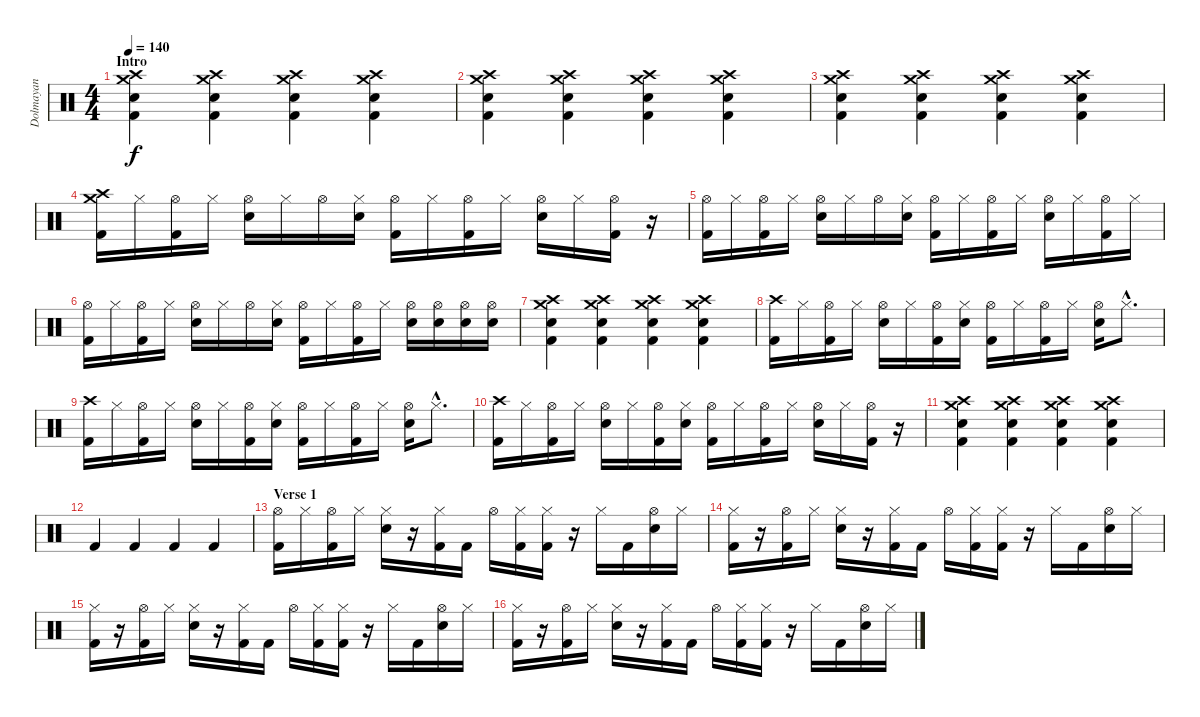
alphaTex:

\track ("Dolmayan" "Dolmayan") {instrument percussion}
\staff {score}
\articulation defaults
\ts (4 4)
\section ("" "Intro")
\tempo 140
\clef neutral
\ks c
("Crash high (hit)" "Crash medium (hit)" "Electric Snare (hit)" "Kick (hit) 2").4{dy f} ("Crash high (hit)" "Crash medium (hit)" "Electric Snare (hit)" "Kick (hit) 2").4 ("Crash high (hit)" "Crash medium (hit)" "Electric Snare (hit)" "Kick (hit) 2").4 ("Crash high (hit)" "Crash medium (hit)" "Electric Snare (hit)" "Kick (hit) 2").4 |
("Crash high (hit)" "Crash medium (hit)" "Electric Snare (hit)" "Kick (hit) 2").4 ("Crash high (hit)" "Crash medium (hit)" "Electric Snare (hit)" "Kick (hit) 2").4 ("Crash high (hit)" "Crash medium (hit)" "Electric Snare (hit)" "Kick (hit) 2").4 ("Crash high (hit)" "Crash medium (hit)" "Electric Snare (hit)" "Kick (hit) 2").4 |
("Crash high (hit)" "Crash medium (hit)" "Electric Snare (hit)" "Kick (hit) 2").4 ("Crash high (hit)" "Crash medium (hit)" "Electric Snare (hit)" "Kick (hit) 2").4 ("Crash high (hit)" "Crash medium (hit)" "Electric Snare (hit)" "Kick (hit) 2").4 ("Crash high (hit)" "Crash medium (hit)" "Electric Snare (hit)" "Kick (hit) 2").4 |
("Crash high (hit)" "Crash medium (hit)" "Kick (hit) 2").16 "Hi-Hat (closed)".16 ("Hi-Hat (open)" "Kick (hit) 2").16 "Hi-Hat (closed)".16 ("Hi-Hat (open)" "Electric Snare (hit)").16 "Hi-Hat (closed)".16 "Hi-Hat (open)".16 ("Hi-Hat (closed)" "Electric Snare (hit)").16 ("Hi-Hat (open)" "Kick (hit) 2").16 "Hi-Hat (closed)".16 ("Hi-Hat (open)" "Kick (hit) 2").16 "Hi-Hat (closed)".16 ("Hi-Hat (open)" "Electric Snare (hit)").16 "Hi-Hat (closed)".16 ("Hi-Hat (open)" "Kick (hit) 2").16 r.16 |
("Hi-Hat (open)" "Kick (hit) 2").16 "Hi-Hat (closed)".16 ("Hi-Hat (open)" "Kick (hit) 2").16 "Hi-Hat (closed)".16 ("Hi-Hat (open)" "Electric Snare (hit)").16 "Hi-Hat (closed)".16 "Hi-Hat (open)".16 ("Hi-Hat (closed)" "Electric Snare (hit)").16 ("Hi-Hat (open)" "Kick (hit) 2").16 "Hi-Hat (closed)".16 ("Hi-Hat (open)" "Kick (hit) 2").16 "Hi-Hat (closed)".16 ("Hi-Hat (open)" "Electric Snare (hit)").16 "Hi-Hat (closed)".16 ("Hi-Hat (open)" "Kick (hit) 2").16 "Hi-Hat (closed)".16 |
("Hi-Hat (open)" "Kick (hit) 2").16 "Hi-Hat (closed)".16 ("Hi-Hat (open)" "Kick (hit) 2").16 "Hi-Hat (closed)".16 ("Hi-Hat (open)" "Electric Snare (hit)").16 "Hi-Hat (closed)".16 "Hi-Hat (open)".16 ("Hi-Hat (closed)" "Electric Snare (hit)").16 ("Hi-Hat (open)" "Kick (hit) 2").16 "Hi-Hat (closed)".16 ("Hi-Hat (open)" "Kick (hit) 2").16 "Hi-Hat (closed)".16 ("Hi-Hat (open)" "Electric Snare (hit)").16 ("Hi-Hat (open)" "Electric Snare (hit)").16 ("Hi-Hat (open)" "Electric Snare (hit)").16 ("Hi-Hat (open)" "Electric Snare (hit)").16 |
("Crash high (hit)" "Crash medium (hit)" "Electric Snare (hit)" "Kick (hit) 2").4 ("Crash high (hit)" "Crash medium (hit)" "Electric Snare (hit)" "Kick (hit) 2").4 ("Crash high (hit)" "Crash medium (hit)" "Electric Snare (hit)" "Kick (hit) 2").4 ("Crash high (hit)" "Crash medium (hit)" "Electric Snare (hit)" "Kick (hit) 2").4 |
("Crash high (hit)" "Kick (hit) 2").16 "Hi-Hat (closed)".16 ("Hi-Hat (open)" "Kick (hit) 2").16 "Hi-Hat (closed)".16 ("Hi-Hat (open)" "Electric Snare (hit)").16 "Hi-Hat (closed)".16 ("Hi-Hat (open)" "Kick (hit) 2").16 ("Hi-Hat (closed)" "Electric Snare (hit)").16 ("Hi-Hat (open)" "Kick (hit) 2").16 "Hi-Hat (closed)".16 ("Hi-Hat (open)" "Kick (hit) 2").16 "Hi-Hat (closed)".16 ("Hi-Hat (open)" "Electric Snare (hit)").16 "Hi-Hat (closed)"{hac}.8{d} |
("Crash high (hit)" "Kick (hit) 2").16 "Hi-Hat (closed)".16 ("Hi-Hat (open)" "Kick (hit) 2").16 "Hi-Hat (closed)".16 ("Hi-Hat (open)" "Electric Snare (hit)").16 "Hi-Hat (closed)".16 ("Hi-Hat (open)" "Kick (hit) 2").16 ("Hi-Hat (closed)" "Electric Snare (hit)").16 ("Hi-Hat (open)" "Kick (hit) 2").16 "Hi-Hat (closed)".16 ("Hi-Hat (open)" "Kick (hit) 2").16 "Hi-Hat (closed)".16 ("Hi-Hat (open)" "Electric Snare (hit)").16 "Hi-Hat (closed)"{hac}.8{d} |
("Crash high (hit)" "Kick (hit) 2").16 "Hi-Hat (closed)".16 ("Hi-Hat (open)" "Kick (hit) 2").16 "Hi-Hat (closed)".16 ("Hi-Hat (open)" "Electric Snare (hit)").16 "Hi-Hat (closed)".16 ("Hi-Hat (open)" "Kick (hit) 2").16 ("Hi-Hat (closed)" "Electric Snare (hit)").16 ("Hi-Hat (open)" "Kick (hit) 2").16 "Hi-Hat (closed)".16 ("Hi-Hat (open)" "Kick (hit) 2").16 "Hi-Hat (closed)".16 ("Hi-Hat (open)" "Electric Snare (hit)").16 "Hi-Hat (closed)".16 ("Hi-Hat (open)" "Kick (hit) 2").16 r.16 |
("Crash high (hit)" "Crash medium (hit)" "Electric Snare (hit)" "Kick (hit) 2").4 ("Crash high (hit)" "Crash medium (hit)" "Electric Snare (hit)" "Kick (hit) 2").4 ("Crash high (hit)" "Crash medium (hit)" "Electric Snare (hit)" "Kick (hit) 2").4 ("Crash high (hit)" "Crash medium (hit)" "Electric Snare (hit)" "Kick (hit) 2").4 |
"Kick (hit) 2".4 "Kick (hit) 2".4 "Kick (hit) 2".4 "Kick (hit) 2".4 |
\section ("" "Verse 1")
("Hi-Hat (open)" "Kick (hit) 2").16 "Hi-Hat (closed)".16 ("Hi-Hat (open)" "Kick (hit) 2").16 "Hi-Hat (closed)".16 ("Hi-Hat (closed)" "Electric Snare (hit)").16 r.16 ("Hi-Hat (closed)" "Kick (hit) 2").16 "Kick (hit) 2".16 "Hi-Hat (open)".16 ("Hi-Hat (closed)" "Kick (hit) 2").16 ("Hi-Hat (closed)" "Kick (hit) 2").16 r.16 "Hi-Hat (closed)".16 "Kick (hit) 2".16 ("Hi-Hat (open)" "Electric Snare (hit)").16 "Hi-Hat (closed)".16 |
("Hi-Hat (closed)" "Kick (hit) 2").16 r.16 ("Hi-Hat (open)" "Kick (hit) 2").16 "Hi-Hat (closed)".16 ("Hi-Hat (closed)" "Electric Snare (hit)").16 r.16 ("Hi-Hat (closed)" "Kick (hit) 2").16 "Kick (hit) 2".16 "Hi-Hat (open)".16 ("Hi-Hat (closed)" "Kick (hit) 2").16 ("Hi-Hat (closed)" "Kick (hit) 2").16 r.16 "Hi-Hat (closed)".16 "Kick (hit) 2".16 ("Hi-Hat (open)" "Electric Snare (hit)").16 "Hi-Hat (closed)".16 |
("Hi-Hat (closed)" "Kick (hit) 2").16 r.16 ("Hi-Hat (open)" "Kick (hit) 2").16 "Hi-Hat (closed)".16 ("Hi-Hat (closed)" "Electric Snare (hit)").16 r.16 ("Hi-Hat (closed)" "Kick (hit) 2").16 "Kick (hit) 2".16 "Hi-Hat (open)".16 ("Hi-Hat (closed)" "Kick (hit) 2").16 ("Hi-Hat (closed)" "Kick (hit) 2").16 r.16 "Hi-Hat (closed)".16 "Kick (hit) 2".16 ("Hi-Hat (open)" "Electric Snare (hit)").16 "Hi-Hat (closed)".16 |
("Hi-Hat (closed)" "Kick (hit) 2").16 r.16 ("Hi-Hat (open)" "Kick (hit) 2").16 "Hi-Hat (closed)".16 ("Hi-Hat (closed)" "Electric Snare (hit)").16 r.16 ("Hi-Hat (closed)" "Kick (hit) 2").16 "Kick (hit) 2".16 "Hi-Hat (open)".16 ("Hi-Hat (closed)" "Kick (hit) 2").16 ("Hi-Hat (closed)" "Kick (hit) 2").16 r.16 "Hi-Hat (closed)".16 "Kick (hit) 2".16 ("Hi-Hat (open)" "Electric Snare (hit)").16 "Hi-Hat (closed)".16
